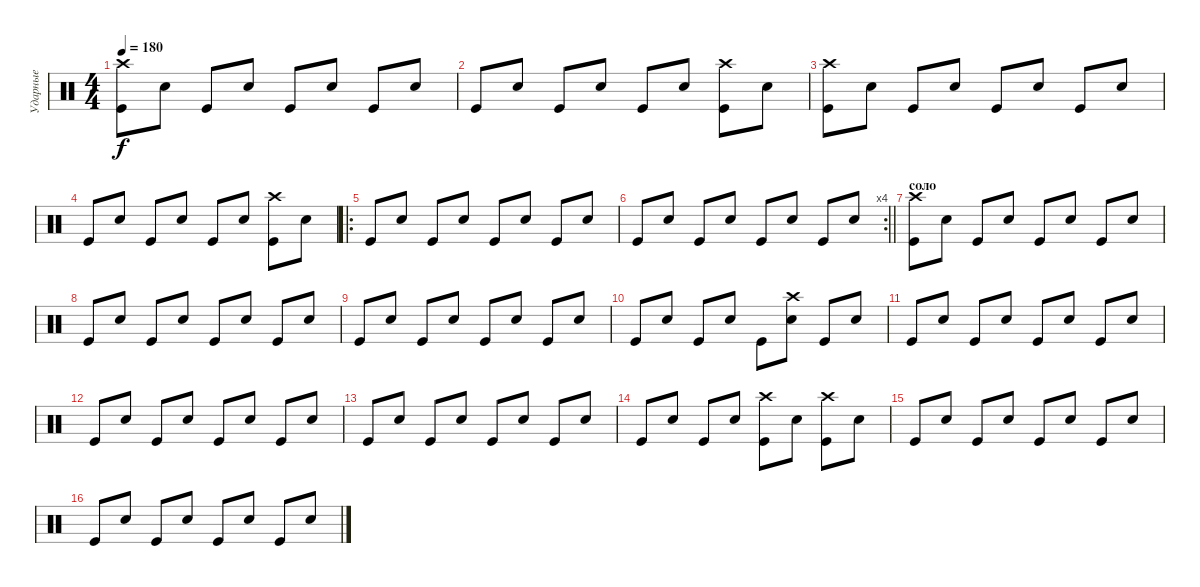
\track ("Ударные" "Ударные") {instrument percussion}
\staff {score}
\articulation defaults
\ts (4 4)
\tempo 180
\clef neutral
\ks c
("Crash high (hit)" "Kick (hit)").8{dy f} "Snare (hit) 2".8 "Kick (hit)".8 "Snare (hit) 2".8 "Kick (hit)".8 "Snare (hit) 2".8 "Kick (hit)".8 "Snare (hit) 2".8 |
"Kick (hit)".8 "Snare (hit) 2".8 "Kick (hit)".8 "Snare (hit) 2".8 "Kick (hit)".8 "Snare (hit) 2".8 ("Crash high (hit)" "Kick (hit)").8 "Snare (hit) 2".8 |
("Crash high (hit)" "Kick (hit)").8 "Snare (hit) 2".8 "Kick (hit)".8 "Snare (hit) 2".8 "Kick (hit)".8 "Snare (hit) 2".8 "Kick (hit)".8 "Snare (hit) 2".8 |
"Kick (hit)".8 "Snare (hit) 2".8 "Kick (hit)".8 "Snare (hit) 2".8 "Kick (hit)".8 "Snare (hit) 2".8 ("Crash high (hit)" "Kick (hit)").8 "Snare (hit) 2".8 |
\ro "Kick (hit)".8 "Snare (hit) 2".8 "Kick (hit)".8 "Snare (hit) 2".8 "Kick (hit)".8 "Snare (hit) 2".8 "Kick (hit)".8 "Snare (hit) 2".8
|
\rc 4
\barLineRight lightlight "Kick (hit)".8 "Snare (hit) 2".8 "Kick (hit)".8 "Snare (hit) 2".8 "Kick (hit)".8 "Snare (hit) 2".8 "Kick (hit)".8 "Snare (hit) 2".8
|
\section ("" "соло")
("Crash high (hit)" "Kick (hit)").8 "Snare (hit) 2".8 "Kick (hit)".8 "Snare (hit) 2".8 "Kick (hit)".8 "Snare (hit) 2".8 "Kick (hit)".8 "Snare (hit) 2".8 |
"Kick (hit)".8 "Snare (hit) 2".8 "Kick (hit)".8 "Snare (hit) 2".8 "Kick (hit)".8 "Snare (hit) 2".8 "Kick (hit)".8 "Snare (hit) 2".8 |
"Kick (hit)".8 "Snare (hit) 2".8 "Kick (hit)".8 "Snare (hit) 2".8 "Kick (hit)".8 "Snare (hit) 2".8 "Kick (hit)".8 "Snare (hit) 2".8 |
"Kick (hit)".8 "Snare (hit) 2".8 "Kick (hit)".8 "Snare (hit) 2".8 "Kick (hit)".8 ("Crash high (hit)" "Snare (hit) 2").8 "Kick (hit)".8 "Snare (hit) 2".8 |
"Kick (hit)".8 "Snare (hit) 2".8 "Kick (hit)".8 "Snare (hit) 2".8 "Kick (hit)".8 "Snare (hit) 2".8 "Kick (hit)".8 "Snare (hit) 2".8 |
"Kick (hit)".8 "Snare (hit) 2".8 "Kick (hit)".8 "Snare (hit) 2".8 "Kick (hit)".8 "Snare (hit) 2".8 "Kick (hit)".8 "Snare (hit) 2".8 |
"Kick (hit)".8 "Snare (hit) 2".8 "Kick (hit)".8 "Snare (hit) 2".8 "Kick (hit)".8 "Snare (hit) 2".8 "Kick (hit)".8 "Snare (hit) 2".8 |
"Kick (hit)".8 "Snare (hit) 2".8 "Kick (hit)".8 "Snare (hit) 2".8 ("Crash high (hit)" "Kick (hit)").8 "Snare (hit) 2".8 ("Crash high (hit)" "Kick (hit)").8 "Snare (hit) 2".8 |
"Kick (hit)".8 "Snare (hit) 2".8 "Kick (hit)".8 "Snare (hit) 2".8 "Kick (hit)".8 "Snare (hit) 2".8 "Kick (hit)".8 "Snare (hit) 2".8 |
"Kick (hit)".8 "Snare (hit) 2".8 "Kick (hit)".8 "Snare (hit) 2".8 "Kick (hit)".8 "Snare (hit) 2".8 "Kick (hit)".8 "Snare (hit) 2".8
